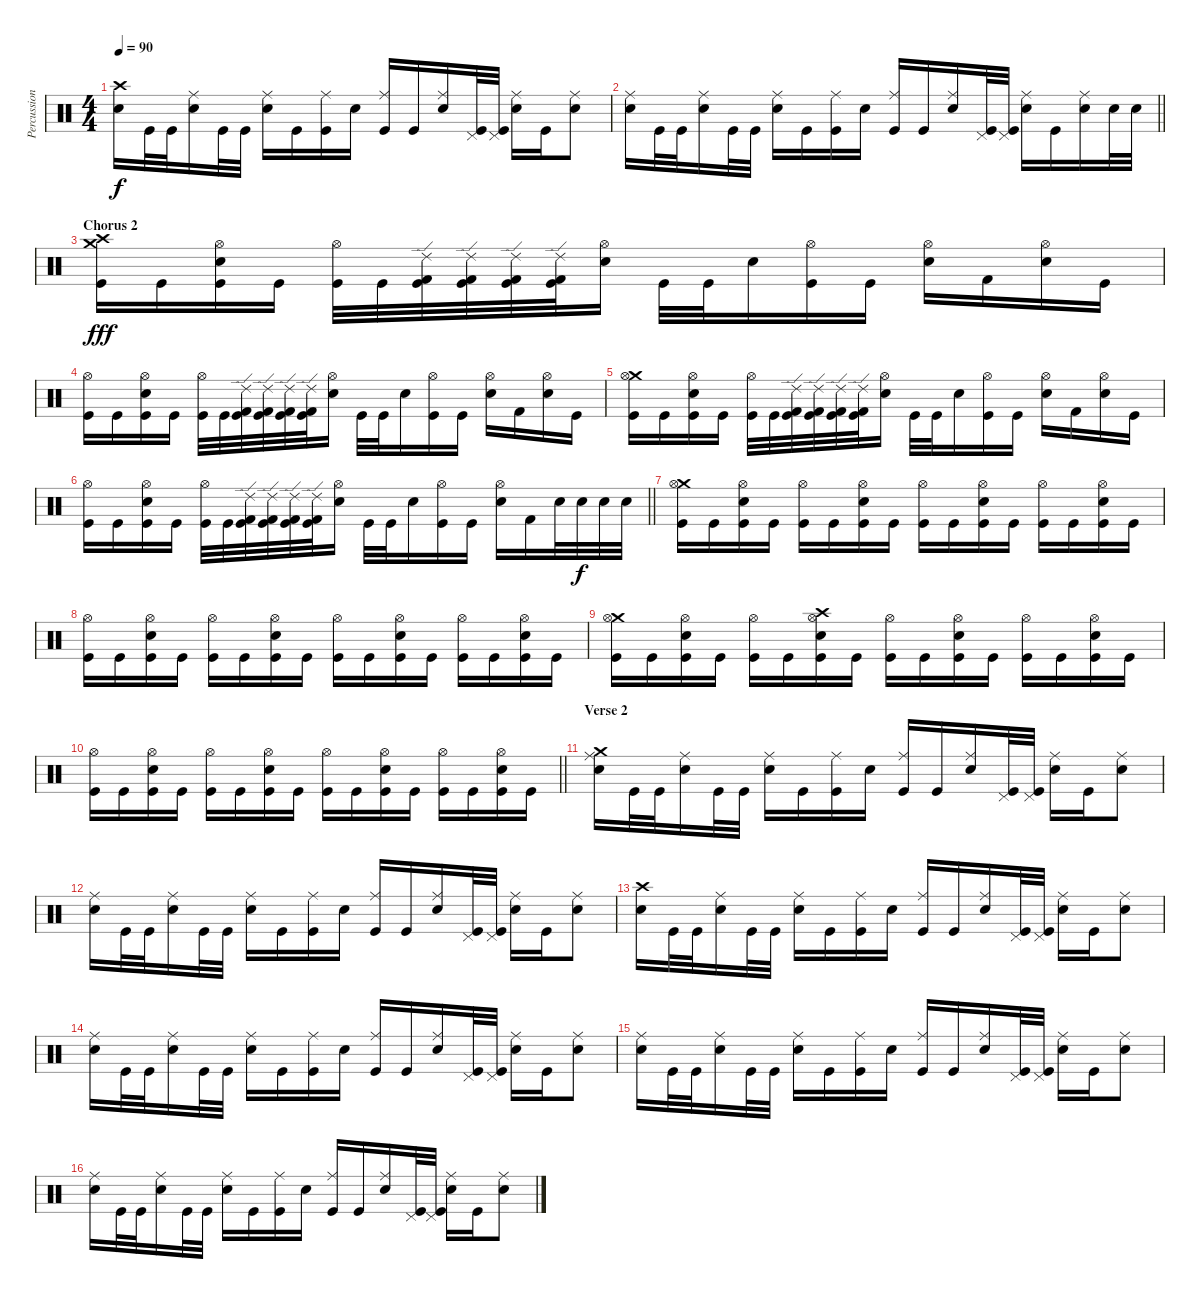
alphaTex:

\track ("Percussion" "Percussion") {instrument percussion}
\staff {score}
\articulation defaults
\ts (4 4)
\tempo 90
\clef neutral
\ks c
("Crash high (hit)" "Electric Snare (hit)").16{dy f} "Kick (hit)".32 "Kick (hit)".32 ("Ride (middle)" "Electric Snare (hit)").16 "Kick (hit)".32 "Kick (hit)".32 ("Ride (middle)" "Electric Snare (hit)").16 "Kick (hit)".16 ("Ride (middle)" "Kick (hit)").16 "Electric Snare (hit)".16 ("Ride (middle)" "Kick (hit)").16 "Kick (hit)".16 ("Ride (middle)" "Electric Snare (hit)").16 ("Pedal Hi-Hat (hit)" "Kick (hit)").32 ("Pedal Hi-Hat (hit)" "Kick (hit)").32 ("Ride (middle)" "Electric Snare (hit)").16 "Kick (hit)".16 ("Ride (middle)" "Electric Snare (hit)").8 |
\barLineRight lightlight
("Ride (middle)" "Electric Snare (hit)").16 "Kick (hit)".32 "Kick (hit)".32 ("Ride (middle)" "Electric Snare (hit)").16 "Kick (hit)".32 "Kick (hit)".32 ("Ride (middle)" "Electric Snare (hit)").16 "Kick (hit)".16 ("Ride (middle)" "Kick (hit)").16 "Electric Snare (hit)".16 ("Ride (middle)" "Kick (hit)").16 "Kick (hit)".16 ("Ride (middle)" "Electric Snare (hit)").16 ("Pedal Hi-Hat (hit)" "Kick (hit)").32 ("Pedal Hi-Hat (hit)" "Kick (hit)").32 ("Ride (middle)" "Electric Snare (hit)").16 "Kick (hit)".16 ("Ride (middle)" "Electric Snare (hit)").16 "Electric Snare (hit)".32 "Electric Snare (hit)".32 |
\section ("" "Chorus 2")
("Crash medium (hit)" "Crash high (hit)" "Kick (hit)").16{dy fff} "Kick (hit)".16 ("Hi-Hat (open)" "Electric Snare (hit)" "Kick (hit)").16 "Kick (hit)".16 ("Hi-Hat (open)" "Kick (hit)").32 "Kick (hit)".32 ("Ride (edge) 2" "Kick (hit) 2" "Kick (hit)").32 ("Ride (edge) 2" "Kick (hit) 2" "Kick (hit)").32 ("Ride (edge) 2" "Kick (hit) 2" "Kick (hit)").32 ("Ride (edge) 2" "Kick (hit) 2" "Kick (hit)").32 ("Hi-Hat (open)" "Electric Snare (hit)").16 "Kick (hit)".32 "Kick (hit)".32 "Electric Snare (hit)".16 ("Hi-Hat (open)" "Kick (hit)").16 "Kick (hit)".16 ("Hi-Hat (open)" "Electric Snare (hit)").16 "Kick (hit) 2".16 ("Hi-Hat (open)" "Electric Snare (hit)").16 "Kick (hit)".16 |
("Hi-Hat (open)" "Kick (hit)").16 "Kick (hit)".16 ("Hi-Hat (open)" "Electric Snare (hit)" "Kick (hit)").16 "Kick (hit)".16 ("Hi-Hat (open)" "Kick (hit)").32 "Kick (hit)".32 ("Ride (edge) 2" "Kick (hit) 2" "Kick (hit)").32 ("Ride (edge) 2" "Kick (hit) 2" "Kick (hit)").32 ("Ride (edge) 2" "Kick (hit) 2" "Kick (hit)").32 ("Ride (edge) 2" "Kick (hit) 2" "Kick (hit)").32 ("Hi-Hat (open)" "Electric Snare (hit)").16 "Kick (hit)".32 "Kick (hit)".32 "Electric Snare (hit)".16 ("Hi-Hat (open)" "Kick (hit)").16 "Kick (hit)".16 ("Hi-Hat (open)" "Electric Snare (hit)").16 "Kick (hit) 2".16 ("Hi-Hat (open)" "Electric Snare (hit)").16 "Kick (hit)".16 |
("Crash medium (hit)" "Hi-Hat (open)" "Kick (hit)").16 "Kick (hit)".16 ("Hi-Hat (open)" "Electric Snare (hit)" "Kick (hit)").16 "Kick (hit)".16 ("Hi-Hat (open)" "Kick (hit)").32 "Kick (hit)".32 ("Ride (edge) 2" "Kick (hit) 2" "Kick (hit)").32 ("Ride (edge) 2" "Kick (hit) 2" "Kick (hit)").32 ("Ride (edge) 2" "Kick (hit) 2" "Kick (hit)").32 ("Ride (edge) 2" "Kick (hit) 2" "Kick (hit)").32 ("Hi-Hat (open)" "Electric Snare (hit)").16 "Kick (hit)".32 "Kick (hit)".32 "Electric Snare (hit)".16 ("Hi-Hat (open)" "Kick (hit)").16 "Kick (hit)".16 ("Hi-Hat (open)" "Electric Snare (hit)").16 "Kick (hit) 2".16 ("Hi-Hat (open)" "Electric Snare (hit)").16 "Kick (hit)".16 |
\barLineRight lightlight
("Hi-Hat (open)" "Kick (hit)").16 "Kick (hit)".16 ("Hi-Hat (open)" "Electric Snare (hit)" "Kick (hit)").16 "Kick (hit)".16 ("Hi-Hat (open)" "Kick (hit)").32 "Kick (hit)".32 ("Ride (edge) 2" "Kick (hit) 2" "Kick (hit)").32 ("Ride (edge) 2" "Kick (hit) 2" "Kick (hit)").32 ("Ride (edge) 2" "Kick (hit) 2" "Kick (hit)").32 ("Ride (edge) 2" "Kick (hit) 2" "Kick (hit)").32 ("Hi-Hat (open)" "Electric Snare (hit)").16 "Kick (hit)".32 "Kick (hit)".32 "Electric Snare (hit)".16 ("Hi-Hat (open)" "Kick (hit)").16 "Kick (hit)".16 ("Hi-Hat (open)" "Electric Snare (hit)").16 "Kick (hit) 2".16 "Electric Snare (hit)".32 "Electric Snare (hit)".32{dy f} "Electric Snare (hit)".32 "Electric Snare (hit)".32 |
("Crash medium (hit)" "Hi-Hat (open)" "Kick (hit)").16 "Kick (hit)".16 ("Hi-Hat (open)" "Electric Snare (hit)" "Kick (hit)").16 "Kick (hit)".16 ("Hi-Hat (open)" "Kick (hit)").16 "Kick (hit)".16 ("Hi-Hat (open)" "Electric Snare (hit)" "Kick (hit)").16 "Kick (hit)".16 ("Hi-Hat (open)" "Kick (hit)").16 "Kick (hit)".16 ("Hi-Hat (open)" "Electric Snare (hit)" "Kick (hit)").16 "Kick (hit)".16 ("Hi-Hat (open)" "Kick (hit)").16 "Kick (hit)".16 ("Hi-Hat (open)" "Electric Snare (hit)" "Kick (hit)").16 "Kick (hit)".16 |
("Hi-Hat (open)" "Kick (hit)").16 "Kick (hit)".16 ("Hi-Hat (open)" "Electric Snare (hit)" "Kick (hit)").16 "Kick (hit)".16 ("Hi-Hat (open)" "Kick (hit)").16 "Kick (hit)".16 ("Hi-Hat (open)" "Electric Snare (hit)" "Kick (hit)").16 "Kick (hit)".16 ("Hi-Hat (open)" "Kick (hit)").16 "Kick (hit)".16 ("Hi-Hat (open)" "Electric Snare (hit)" "Kick (hit)").16 "Kick (hit)".16 ("Hi-Hat (open)" "Kick (hit)").16 "Kick (hit)".16 ("Hi-Hat (open)" "Electric Snare (hit)" "Kick (hit)").16 "Kick (hit)".16 |
("Crash medium (hit)" "Hi-Hat (open)" "Kick (hit)").16 "Kick (hit)".16 ("Hi-Hat (open)" "Electric Snare (hit)" "Kick (hit)").16 "Kick (hit)".16 ("Hi-Hat (open)" "Kick (hit)").16 "Kick (hit)".16 ("Crash high (hit)" "Hi-Hat (open)" "Electric Snare (hit)" "Kick (hit)").16 "Kick (hit)".16 ("Hi-Hat (open)" "Kick (hit)").16 "Kick (hit)".16 ("Hi-Hat (open)" "Electric Snare (hit)" "Kick (hit)").16 "Kick (hit)".16 ("Hi-Hat (open)" "Kick (hit)").16 "Kick (hit)".16 ("Hi-Hat (open)" "Electric Snare (hit)" "Kick (hit)").16 "Kick (hit)".16 |
\barLineRight lightlight
("Hi-Hat (open)" "Kick (hit)").16 "Kick (hit)".16 ("Hi-Hat (open)" "Electric Snare (hit)" "Kick (hit)").16 "Kick (hit)".16 ("Hi-Hat (open)" "Kick (hit)").16 "Kick (hit)".16 ("Hi-Hat (open)" "Electric Snare (hit)" "Kick (hit)").16 "Kick (hit)".16 ("Hi-Hat (open)" "Kick (hit)").16 "Kick (hit)".16 ("Hi-Hat (open)" "Electric Snare (hit)" "Kick (hit)").16 "Kick (hit)".16 ("Hi-Hat (open)" "Kick (hit)").16 "Kick (hit)".16 ("Hi-Hat (open)" "Electric Snare (hit)" "Kick (hit)").16 "Kick (hit)".16 |
\section ("" "Verse 2")
("Crash medium (hit)" "Ride (middle)" "Electric Snare (hit)").16 "Kick (hit)".32 "Kick (hit)".32 ("Ride (middle)" "Electric Snare (hit)").16 "Kick (hit)".32 "Kick (hit)".32 ("Ride (middle)" "Electric Snare (hit)").16 "Kick (hit)".16 ("Ride (middle)" "Kick (hit)").16 "Electric Snare (hit)".16 ("Ride (middle)" "Kick (hit)").16 "Kick (hit)".16 ("Ride (middle)" "Electric Snare (hit)").16 ("Pedal Hi-Hat (hit)" "Kick (hit)").32 ("Pedal Hi-Hat (hit)" "Kick (hit)").32 ("Ride (middle)" "Electric Snare (hit)").16 "Kick (hit)".16 ("Ride (middle)" "Electric Snare (hit)").8 |
("Ride (middle)" "Electric Snare (hit)").16 "Kick (hit)".32 "Kick (hit)".32 ("Ride (middle)" "Electric Snare (hit)").16 "Kick (hit)".32 "Kick (hit)".32 ("Ride (middle)" "Electric Snare (hit)").16 "Kick (hit)".16 ("Ride (middle)" "Kick (hit)").16 "Electric Snare (hit)".16 ("Ride (middle)" "Kick (hit)").16 "Kick (hit)".16 ("Ride (middle)" "Electric Snare (hit)").16 ("Pedal Hi-Hat (hit)" "Kick (hit)").32 ("Pedal Hi-Hat (hit)" "Kick (hit)").32 ("Ride (middle)" "Electric Snare (hit)").16 "Kick (hit)".16 ("Ride (middle)" "Electric Snare (hit)").8 |
("Crash high (hit)" "Electric Snare (hit)").16 "Kick (hit)".32 "Kick (hit)".32 ("Ride (middle)" "Electric Snare (hit)").16 "Kick (hit)".32 "Kick (hit)".32 ("Ride (middle)" "Electric Snare (hit)").16 "Kick (hit)".16 ("Ride (middle)" "Kick (hit)").16 "Electric Snare (hit)".16 ("Ride (middle)" "Kick (hit)").16 "Kick (hit)".16 ("Ride (middle)" "Electric Snare (hit)").16 ("Pedal Hi-Hat (hit)" "Kick (hit)").32 ("Pedal Hi-Hat (hit)" "Kick (hit)").32 ("Ride (middle)" "Electric Snare (hit)").16 "Kick (hit)".16 ("Ride (middle)" "Electric Snare (hit)").8 |
("Ride (middle)" "Electric Snare (hit)").16 "Kick (hit)".32 "Kick (hit)".32 ("Ride (middle)" "Electric Snare (hit)").16 "Kick (hit)".32 "Kick (hit)".32 ("Ride (middle)" "Electric Snare (hit)").16 "Kick (hit)".16 ("Ride (middle)" "Kick (hit)").16 "Electric Snare (hit)".16 ("Ride (middle)" "Kick (hit)").16 "Kick (hit)".16 ("Ride (middle)" "Electric Snare (hit)").16 ("Pedal Hi-Hat (hit)" "Kick (hit)").32 ("Pedal Hi-Hat (hit)" "Kick (hit)").32 ("Ride (middle)" "Electric Snare (hit)").16 "Kick (hit)".16 ("Ride (middle)" "Electric Snare (hit)").8 |
("Ride (middle)" "Electric Snare (hit)").16 "Kick (hit)".32 "Kick (hit)".32 ("Ride (middle)" "Electric Snare (hit)").16 "Kick (hit)".32 "Kick (hit)".32 ("Ride (middle)" "Electric Snare (hit)").16 "Kick (hit)".16 ("Ride (middle)" "Kick (hit)").16 "Electric Snare (hit)".16 ("Ride (middle)" "Kick (hit)").16 "Kick (hit)".16 ("Ride (middle)" "Electric Snare (hit)").16 ("Pedal Hi-Hat (hit)" "Kick (hit)").32 ("Pedal Hi-Hat (hit)" "Kick (hit)").32 ("Ride (middle)" "Electric Snare (hit)").16 "Kick (hit)".16 ("Ride (middle)" "Electric Snare (hit)").8 |
("Ride (middle)" "Electric Snare (hit)").16 "Kick (hit)".32 "Kick (hit)".32 ("Ride (middle)" "Electric Snare (hit)").16 "Kick (hit)".32 "Kick (hit)".32 ("Ride (middle)" "Electric Snare (hit)").16 "Kick (hit)".16 ("Ride (middle)" "Kick (hit)").16 "Electric Snare (hit)".16 ("Ride (middle)" "Kick (hit)").16 "Kick (hit)".16 ("Ride (middle)" "Electric Snare (hit)").16 ("Pedal Hi-Hat (hit)" "Kick (hit)").32 ("Pedal Hi-Hat (hit)" "Kick (hit)").32 ("Ride (middle)" "Electric Snare (hit)").16 "Kick (hit)".16 ("Ride (middle)" "Electric Snare (hit)").8
